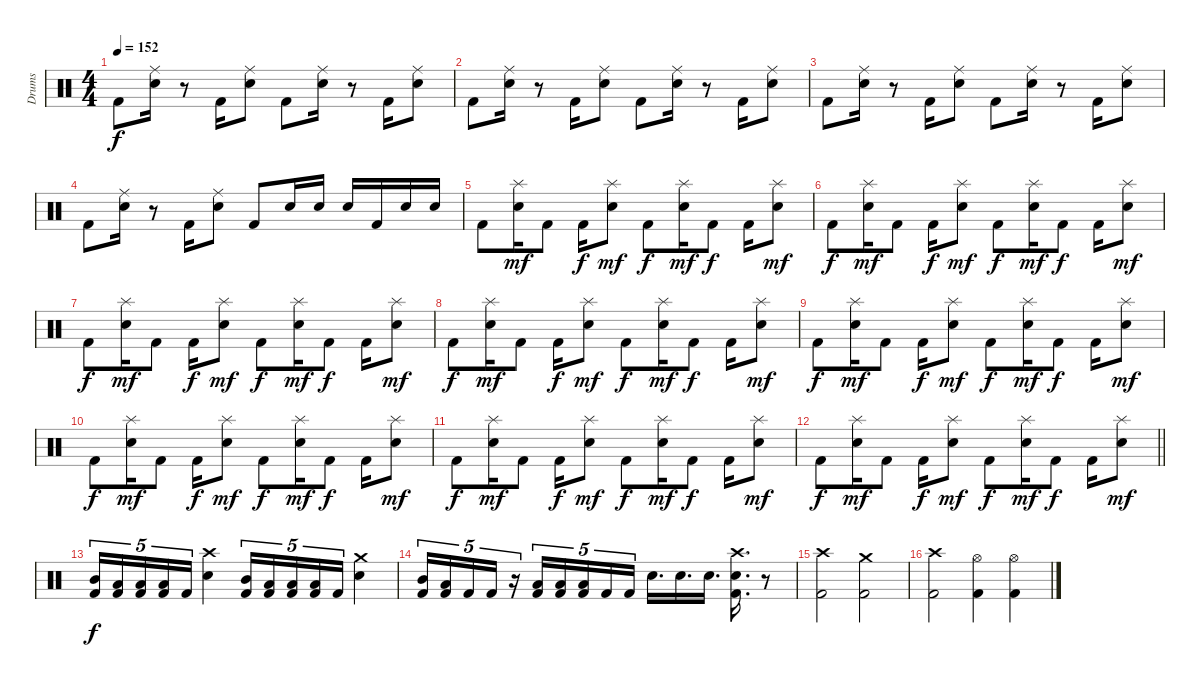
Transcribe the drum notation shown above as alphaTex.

\track ("Drums" "Drums") {instrument percussion}
\staff {score}
\articulation defaults
\ts (4 4)
\tempo 152
\clef neutral
\ks c "Kick (hit) 2".8{dy f}
("Ride (middle)" "Snare (hit) 2").16 r.8 "Kick (hit) 2".16 ("Ride (middle)" "Snare (hit) 2").8 "Kick (hit) 2".8 ("Ride (middle)" "Snare (hit) 2").16 r.8 "Kick (hit) 2".16 ("Ride (middle)" "Snare (hit) 2").8 |
"Kick (hit) 2".8 ("Ride (middle)" "Snare (hit) 2").16 r.8 "Kick (hit) 2".16 ("Ride (middle)" "Snare (hit) 2").8 "Kick (hit) 2".8 ("Ride (middle)" "Snare (hit) 2").16 r.8 "Kick (hit) 2".16 ("Ride (middle)" "Snare (hit) 2").8 |
"Kick (hit) 2".8 ("Ride (middle)" "Snare (hit) 2").16 r.8 "Kick (hit) 2".16 ("Ride (middle)" "Snare (hit) 2").8 "Kick (hit) 2".8 ("Ride (middle)" "Snare (hit) 2").16 r.8 "Kick (hit) 2".16 ("Ride (middle)" "Snare (hit) 2").8 |
"Kick (hit) 2".8 ("Ride (middle)" "Snare (hit) 2").16 r.8 "Kick (hit) 2".16 ("Ride (middle)" "Snare (hit) 2").8 "Kick (hit) 2".8 "Snare (hit) 2".16 "Snare (hit) 2".16 "Snare (hit) 2".16 "Kick (hit) 2".16 "Snare (hit) 2".16 "Snare (hit) 2".16 |
"Kick (hit) 2".8 ("Splash (hit)" "Snare (hit) 2").16{dy mf} "Kick (hit) 2".8 "Kick (hit) 2".16{dy f} ("Splash (hit)" "Snare (hit) 2").8{dy mf} "Kick (hit) 2".8{dy f} ("Splash (hit)" "Snare (hit) 2").16{dy mf} "Kick (hit) 2".8{dy f} "Kick (hit) 2".16 ("Splash (hit)" "Snare (hit) 2").8{dy mf} |
"Kick (hit) 2".8{dy f} ("Splash (hit)" "Snare (hit) 2").16{dy mf} "Kick (hit) 2".8 "Kick (hit) 2".16{dy f} ("Splash (hit)" "Snare (hit) 2").8{dy mf} "Kick (hit) 2".8{dy f} ("Splash (hit)" "Snare (hit) 2").16{dy mf} "Kick (hit) 2".8{dy f} "Kick (hit) 2".16 ("Splash (hit)" "Snare (hit) 2").8{dy mf} |
"Kick (hit) 2".8{dy f} ("Splash (hit)" "Snare (hit) 2").16{dy mf} "Kick (hit) 2".8 "Kick (hit) 2".16{dy f} ("Splash (hit)" "Snare (hit) 2").8{dy mf} "Kick (hit) 2".8{dy f} ("Splash (hit)" "Snare (hit) 2").16{dy mf} "Kick (hit) 2".8{dy f} "Kick (hit) 2".16 ("Splash (hit)" "Snare (hit) 2").8{dy mf} |
"Kick (hit) 2".8{dy f} ("Splash (hit)" "Snare (hit) 2").16{dy mf} "Kick (hit) 2".8 "Kick (hit) 2".16{dy f} ("Splash (hit)" "Snare (hit) 2").8{dy mf} "Kick (hit) 2".8{dy f} ("Splash (hit)" "Snare (hit) 2").16{dy mf} "Kick (hit) 2".8{dy f} "Kick (hit) 2".16 ("Splash (hit)" "Snare (hit) 2").8{dy mf} |
"Kick (hit) 2".8{dy f} ("Splash (hit)" "Snare (hit) 2").16{dy mf} "Kick (hit) 2".8 "Kick (hit) 2".16{dy f} ("Splash (hit)" "Snare (hit) 2").8{dy mf} "Kick (hit) 2".8{dy f} ("Splash (hit)" "Snare (hit) 2").16{dy mf} "Kick (hit) 2".8{dy f} "Kick (hit) 2".16 ("Splash (hit)" "Snare (hit) 2").8{dy mf} |
"Kick (hit) 2".8{dy f} ("Splash (hit)" "Snare (hit) 2").16{dy mf} "Kick (hit) 2".8 "Kick (hit) 2".16{dy f} ("Splash (hit)" "Snare (hit) 2").8{dy mf} "Kick (hit) 2".8{dy f} ("Splash (hit)" "Snare (hit) 2").16{dy mf} "Kick (hit) 2".8{dy f} "Kick (hit) 2".16 ("Splash (hit)" "Snare (hit) 2").8{dy mf} |
"Kick (hit) 2".8{dy f} ("Splash (hit)" "Snare (hit) 2").16{dy mf} "Kick (hit) 2".8 "Kick (hit) 2".16{dy f} ("Splash (hit)" "Snare (hit) 2").8{dy mf} "Kick (hit) 2".8{dy f} ("Splash (hit)" "Snare (hit) 2").16{dy mf} "Kick (hit) 2".8{dy f} "Kick (hit) 2".16 ("Splash (hit)" "Snare (hit) 2").8{dy mf} |
\barLineRight lightlight "Kick (hit) 2".8{dy f}
("Splash (hit)" "Snare (hit) 2").16{dy mf} "Kick (hit) 2".8 "Kick (hit) 2".16{dy f} ("Splash (hit)" "Snare (hit) 2").8{dy mf} "Kick (hit) 2".8{dy f} ("Splash (hit)" "Snare (hit) 2").16{dy mf} "Kick (hit) 2".8{dy f} "Kick (hit) 2".16 ("Splash (hit)" "Snare (hit) 2").8{dy mf} |
("Mid Tom (hit)" "Kick (hit) 2").16{tu (5 4) dy f} ("Low Tom (hit)" "Kick (hit) 2").16{tu (5 4)} ("Low Tom (hit)" "Kick (hit) 2").16{tu (5 4)} ("Low Tom (hit)" "Kick (hit) 2").16{tu (5 4)} "Kick (hit) 2".16{tu (5 4)} ("Crash high (hit)" "Snare (hit) 2").4 ("Mid Tom (hit)" "Kick (hit) 2").16{tu (5 4)} ("Low Tom (hit)" "Kick (hit) 2").16{tu (5 4)} ("Low Tom (hit)" "Kick (hit) 2").16{tu (5 4)} ("Low Tom (hit)" "Kick (hit) 2").16{tu (5 4)} "Kick (hit) 2".16{tu (5 4)} ("Crash medium (hit)" "Snare (hit) 2").4 |
("Mid Tom (hit)" "Kick (hit) 2").16{tu (5 4)} ("Low Tom (hit)" "Kick (hit) 2").16{tu (5 4)} "Kick (hit) 2".16{tu (5 4)} "Kick (hit) 2".16{tu (5 4)} r.16{tu (5 4)} ("Low Tom (hit)" "Kick (hit) 2").16{tu (5 4)} ("Low Tom (hit)" "Kick (hit) 2").16{tu (5 4)} ("Low Tom (hit)" "Kick (hit) 2").16{tu (5 4)} "Kick (hit) 2".16{tu (5 4)} "Kick (hit) 2".16{tu (5 4)} "Snare (hit) 2".16{d} "Snare (hit) 2".16{d} "Snare (hit) 2".16{d} ("Crash high (hit)" "Snare (hit) 2" "Kick (hit) 2").16{d} r.8 |
("Crash high (hit)" "Kick (hit) 2").2 ("Crash medium (hit)" "Kick (hit) 2").2 |
("Crash high (hit)" "Kick (hit) 2").2 ("Hi-Hat (open)" "Kick (hit) 2").4 ("Hi-Hat (open)" "Kick (hit) 2").4
